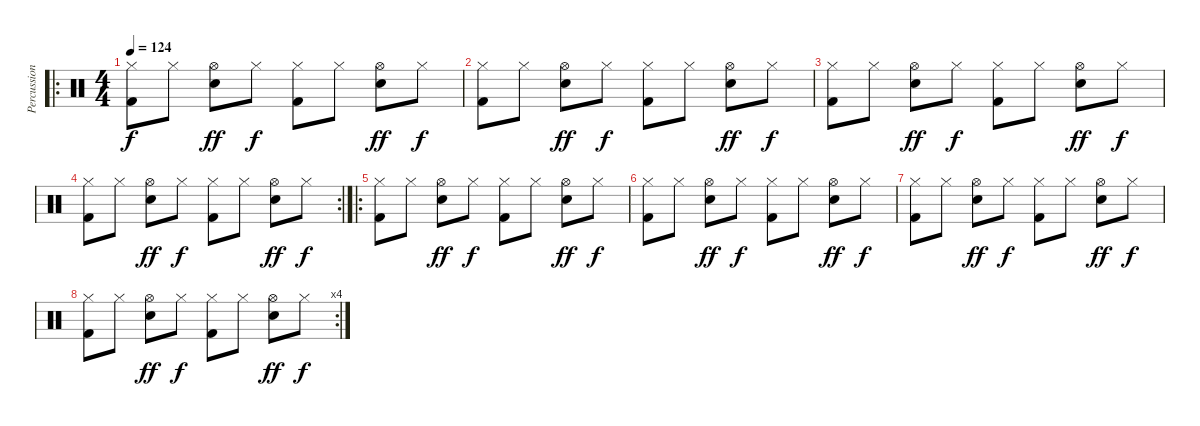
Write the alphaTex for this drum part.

\track ("Percussion" "Percussion") {instrument percussion}
\staff {score}
\articulation defaults
\ro
\ts (4 4)
\tempo 124
\clef neutral
\ks c
("Hi-Hat (closed)" "Kick (hit) 2").8{dy f} "Hi-Hat (closed)".8 ("Hi-Hat (open)" "Snare (hit) 2").8{dy ff} "Hi-Hat (closed)".8{dy f} ("Hi-Hat (closed)" "Kick (hit) 2").8 "Hi-Hat (closed)".8 ("Hi-Hat (open)" "Snare (hit) 2").8{dy ff} "Hi-Hat (closed)".8{dy f} |
("Hi-Hat (closed)" "Kick (hit) 2").8 "Hi-Hat (closed)".8 ("Hi-Hat (open)" "Snare (hit) 2").8{dy ff} "Hi-Hat (closed)".8{dy f} ("Hi-Hat (closed)" "Kick (hit) 2").8 "Hi-Hat (closed)".8 ("Hi-Hat (open)" "Snare (hit) 2").8{dy ff} "Hi-Hat (closed)".8{dy f} |
("Hi-Hat (closed)" "Kick (hit) 2").8 "Hi-Hat (closed)".8 ("Hi-Hat (open)" "Snare (hit) 2").8{dy ff} "Hi-Hat (closed)".8{dy f} ("Hi-Hat (closed)" "Kick (hit) 2").8 "Hi-Hat (closed)".8 ("Hi-Hat (open)" "Snare (hit) 2").8{dy ff} "Hi-Hat (closed)".8{dy f} |
\rc 2
("Hi-Hat (closed)" "Kick (hit) 2").8 "Hi-Hat (closed)".8 ("Hi-Hat (open)" "Snare (hit) 2").8{dy ff} "Hi-Hat (closed)".8{dy f} ("Hi-Hat (closed)" "Kick (hit) 2").8 "Hi-Hat (closed)".8 ("Hi-Hat (open)" "Snare (hit) 2").8{dy ff} "Hi-Hat (closed)".8{dy f} |
\ro
("Hi-Hat (closed)" "Kick (hit) 2").8 "Hi-Hat (closed)".8 ("Hi-Hat (open)" "Snare (hit) 2").8{dy ff} "Hi-Hat (closed)".8{dy f} ("Hi-Hat (closed)" "Kick (hit) 2").8 "Hi-Hat (closed)".8 ("Hi-Hat (open)" "Snare (hit) 2").8{dy ff} "Hi-Hat (closed)".8{dy f} |
("Hi-Hat (closed)" "Kick (hit) 2").8 "Hi-Hat (closed)".8 ("Hi-Hat (open)" "Snare (hit) 2").8{dy ff} "Hi-Hat (closed)".8{dy f} ("Hi-Hat (closed)" "Kick (hit) 2").8 "Hi-Hat (closed)".8 ("Hi-Hat (open)" "Snare (hit) 2").8{dy ff} "Hi-Hat (closed)".8{dy f} |
("Hi-Hat (closed)" "Kick (hit) 2").8 "Hi-Hat (closed)".8 ("Hi-Hat (open)" "Snare (hit) 2").8{dy ff} "Hi-Hat (closed)".8{dy f} ("Hi-Hat (closed)" "Kick (hit) 2").8 "Hi-Hat (closed)".8 ("Hi-Hat (open)" "Snare (hit) 2").8{dy ff} "Hi-Hat (closed)".8{dy f} |
\rc 4
("Hi-Hat (closed)" "Kick (hit) 2").8 "Hi-Hat (closed)".8 ("Hi-Hat (open)" "Snare (hit) 2").8{dy ff} "Hi-Hat (closed)".8{dy f} ("Hi-Hat (closed)" "Kick (hit) 2").8 "Hi-Hat (closed)".8 ("Hi-Hat (open)" "Snare (hit) 2").8{dy ff} "Hi-Hat (closed)".8{dy f}
